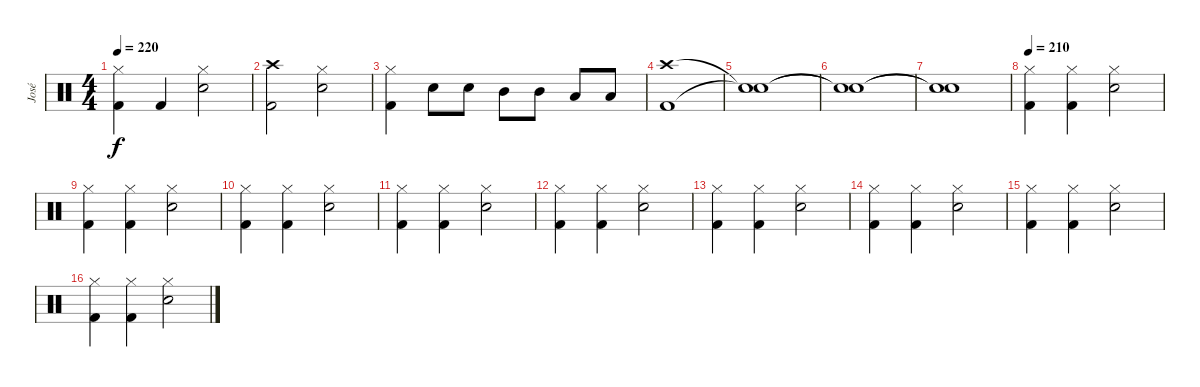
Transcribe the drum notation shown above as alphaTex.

\track ("José" "José") {instrument percussion}
\staff {score}
\articulation defaults
\ts (4 4)
\tempo 220
\clef neutral
\ks c
("Hi-Hat (closed)" "Kick (hit) 2").4{dy f} "Kick (hit) 2".4 ("Hi-Hat (closed)" "Electric Snare (hit)").2 |
("Crash high (hit)" "Kick (hit) 2").2 ("Hi-Hat (closed)" "Electric Snare (hit)").2 |
("Hi-Hat (closed)" "Kick (hit) 2").4 "Electric Snare (hit)".8 "Electric Snare (hit)".8 "Mid Tom (hit)".8 "Mid Tom (hit)".8 "Low Tom (hit)".8 "Low Tom (hit)".8 |
("Crash high (hit)" "Kick (hit) 2").1 |
("Snare (hit)"{t} "Snare (hit)"{t}).1 |
("Snare (hit)"{t} "Snare (hit)"{t}).1 |
("Snare (hit)"{t} "Snare (hit)"{t}).1 |
\tempo 210
("Hi-Hat (closed)" "Kick (hit) 2").4 ("Hi-Hat (closed)" "Kick (hit) 2").4 ("Hi-Hat (closed)" "Electric Snare (hit)").2 |
("Hi-Hat (closed)" "Kick (hit) 2").4 ("Hi-Hat (closed)" "Kick (hit) 2").4 ("Hi-Hat (closed)" "Electric Snare (hit)").2 |
("Hi-Hat (closed)" "Kick (hit) 2").4 ("Hi-Hat (closed)" "Kick (hit) 2").4 ("Hi-Hat (closed)" "Electric Snare (hit)").2 |
("Hi-Hat (closed)" "Kick (hit) 2").4 ("Hi-Hat (closed)" "Kick (hit) 2").4 ("Hi-Hat (closed)" "Electric Snare (hit)").2 |
("Hi-Hat (closed)" "Kick (hit) 2").4 ("Hi-Hat (closed)" "Kick (hit) 2").4 ("Hi-Hat (closed)" "Electric Snare (hit)").2 |
("Hi-Hat (closed)" "Kick (hit) 2").4 ("Hi-Hat (closed)" "Kick (hit) 2").4 ("Hi-Hat (closed)" "Electric Snare (hit)").2 |
("Hi-Hat (closed)" "Kick (hit) 2").4 ("Hi-Hat (closed)" "Kick (hit) 2").4 ("Hi-Hat (closed)" "Electric Snare (hit)").2 |
("Hi-Hat (closed)" "Kick (hit) 2").4 ("Hi-Hat (closed)" "Kick (hit) 2").4 ("Hi-Hat (closed)" "Electric Snare (hit)").2 |
("Hi-Hat (closed)" "Kick (hit) 2").4 ("Hi-Hat (closed)" "Kick (hit) 2").4 ("Hi-Hat (closed)" "Electric Snare (hit)").2
